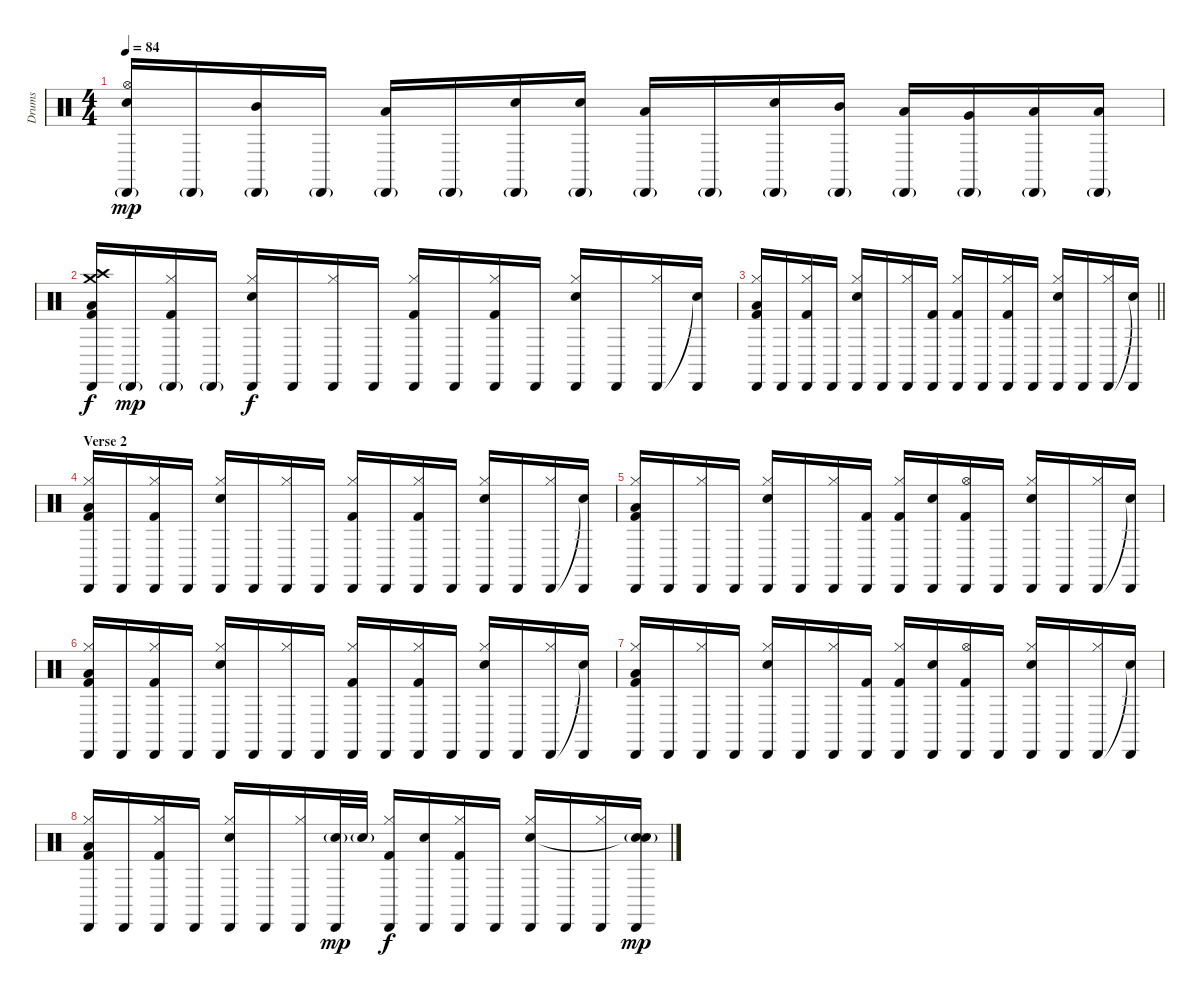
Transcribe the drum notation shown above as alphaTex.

\track ("Drums" "Drums") {instrument percussion}
\staff {score}
\articulation defaults
\ts (4 4)
\tempo 84
\clef neutral
\ks c
("Hi-Hat (open)" "Cabasa (hit)"{g} "Electric Snare (hit)").16{dy mp} "Cabasa (hit)"{g}.16 ("Cabasa (hit)"{g} "Mid Tom (hit)").16 "Cabasa (hit)"{g}.16 ("Cabasa (hit)"{g} "Low Tom (hit)").16 "Cabasa (hit)"{g}.16 ("Cabasa (hit)"{g} "Electric Snare (hit)").16 ("Cabasa (hit)"{g} "Electric Snare (hit)").16 ("Cabasa (hit)"{g} "Low Tom (hit)").16 "Cabasa (hit)"{g}.16 ("Cabasa (hit)"{g} "Electric Snare (hit)").16 ("Cabasa (hit)"{g} "Mid Tom (hit)").16 ("Cabasa (hit)"{g} "Low Tom (hit)").16 ("Cabasa (hit)"{g} "Very Low Tom (hit)").16 ("Cabasa (hit)"{g} "Low Floor Tom (hit)").16 ("Cabasa (hit)"{g} "Low Floor Tom (hit)").16 |
("Crash high (hit)" "Crash medium (hit)" "Cabasa (hit)" "Low Floor Tom (hit)" "Kick (hit) 2").16{dy f volume 10} "Cabasa (hit)"{g}.16{dy mp} ("Hi-Hat (closed)" "Cabasa (hit)"{g} "Kick (hit) 2").16 "Cabasa (hit)"{g}.16 ("Hi-Hat (closed)" "Cabasa (hit)" "Electric Snare (hit)").16{dy f} "Cabasa (hit)".16 ("Hi-Hat (closed)" "Cabasa (hit)").16 "Cabasa (hit)".16 ("Hi-Hat (closed)" "Cabasa (hit)" "Kick (hit) 2").16 "Cabasa (hit)".16 ("Hi-Hat (closed)" "Cabasa (hit)" "Kick (hit) 2").16 "Cabasa (hit)".16 ("Hi-Hat (closed)" "Cabasa (hit)" "Electric Snare (hit)").16 "Cabasa (hit)".16 ("Hi-Hat (closed)" "Cabasa (hit)").16 ("Cabasa (hit)" "Snare (hit)"{t}).16 |
\barLineRight lightlight
("Hi-Hat (closed)" "Cabasa (hit)" "Low Floor Tom (hit)" "Kick (hit) 2").16 "Cabasa (hit)".16 ("Hi-Hat (closed)" "Cabasa (hit)" "Kick (hit) 2").16 "Cabasa (hit)".16 ("Hi-Hat (closed)" "Cabasa (hit)" "Electric Snare (hit)").16 "Cabasa (hit)".16 ("Hi-Hat (closed)" "Cabasa (hit)").16 ("Cabasa (hit)" "Kick (hit) 2").16 ("Hi-Hat (closed)" "Cabasa (hit)" "Kick (hit) 2").16 "Cabasa (hit)".16 ("Hi-Hat (closed)" "Cabasa (hit)" "Kick (hit) 2").16 "Cabasa (hit)".16 ("Hi-Hat (closed)" "Cabasa (hit)" "Electric Snare (hit)").16 "Cabasa (hit)".16 ("Hi-Hat (closed)" "Cabasa (hit)").16 ("Cabasa (hit)" "Snare (hit)"{t}).16 |
\section ("" "Verse 2")
("Hi-Hat (closed)" "Cabasa (hit)" "Low Floor Tom (hit)" "Kick (hit) 2").16 "Cabasa (hit)".16 ("Hi-Hat (closed)" "Cabasa (hit)" "Kick (hit) 2").16 "Cabasa (hit)".16 ("Hi-Hat (closed)" "Cabasa (hit)" "Electric Snare (hit)").16 "Cabasa (hit)".16 ("Hi-Hat (closed)" "Cabasa (hit)").16 "Cabasa (hit)".16 ("Hi-Hat (closed)" "Cabasa (hit)" "Kick (hit) 2").16 "Cabasa (hit)".16 ("Hi-Hat (closed)" "Cabasa (hit)" "Kick (hit) 2").16 "Cabasa (hit)".16 ("Hi-Hat (closed)" "Cabasa (hit)" "Electric Snare (hit)").16 "Cabasa (hit)".16 ("Hi-Hat (closed)" "Cabasa (hit)").16 ("Cabasa (hit)" "Snare (hit)"{t}).16 |
("Hi-Hat (closed)" "Cabasa (hit)" "Low Floor Tom (hit)" "Kick (hit) 2").16 "Cabasa (hit)".16 ("Hi-Hat (closed)" "Cabasa (hit)").16 "Cabasa (hit)".16 ("Hi-Hat (closed)" "Cabasa (hit)" "Electric Snare (hit)").16 "Cabasa (hit)".16 ("Hi-Hat (closed)" "Cabasa (hit)").16 ("Cabasa (hit)" "Kick (hit) 2").16 ("Hi-Hat (closed)" "Cabasa (hit)" "Kick (hit) 2").16 ("Cabasa (hit)" "Electric Snare (hit)").16 ("Hi-Hat (open)" "Cabasa (hit)" "Kick (hit) 2").16 "Cabasa (hit)".16 ("Hi-Hat (closed)" "Cabasa (hit)" "Electric Snare (hit)").16 "Cabasa (hit)".16 ("Hi-Hat (closed)" "Cabasa (hit)").16 ("Cabasa (hit)" "Snare (hit)"{t}).16 |
("Hi-Hat (closed)" "Cabasa (hit)" "Low Floor Tom (hit)" "Kick (hit) 2").16 "Cabasa (hit)".16 ("Hi-Hat (closed)" "Cabasa (hit)" "Kick (hit) 2").16 "Cabasa (hit)".16 ("Hi-Hat (closed)" "Cabasa (hit)" "Electric Snare (hit)").16 "Cabasa (hit)".16 ("Hi-Hat (closed)" "Cabasa (hit)").16 "Cabasa (hit)".16 ("Hi-Hat (closed)" "Cabasa (hit)" "Kick (hit) 2").16 "Cabasa (hit)".16 ("Hi-Hat (closed)" "Cabasa (hit)" "Kick (hit) 2").16 "Cabasa (hit)".16 ("Hi-Hat (closed)" "Cabasa (hit)" "Electric Snare (hit)").16 "Cabasa (hit)".16 ("Hi-Hat (closed)" "Cabasa (hit)").16 ("Cabasa (hit)" "Snare (hit)"{t}).16 |
("Hi-Hat (closed)" "Cabasa (hit)" "Low Floor Tom (hit)" "Kick (hit) 2").16 "Cabasa (hit)".16 ("Hi-Hat (closed)" "Cabasa (hit)").16 "Cabasa (hit)".16 ("Hi-Hat (closed)" "Cabasa (hit)" "Electric Snare (hit)").16 "Cabasa (hit)".16 ("Hi-Hat (closed)" "Cabasa (hit)").16 ("Cabasa (hit)" "Kick (hit) 2").16 ("Hi-Hat (closed)" "Cabasa (hit)" "Kick (hit) 2").16 ("Cabasa (hit)" "Electric Snare (hit)").16 ("Hi-Hat (open)" "Cabasa (hit)" "Kick (hit) 2").16 "Cabasa (hit)".16 ("Hi-Hat (closed)" "Cabasa (hit)" "Electric Snare (hit)").16 "Cabasa (hit)".16 ("Hi-Hat (closed)" "Cabasa (hit)").16 ("Cabasa (hit)" "Snare (hit)"{t}).16 |
("Hi-Hat (closed)" "Cabasa (hit)" "Low Floor Tom (hit)" "Kick (hit) 2").16 "Cabasa (hit)".16 ("Hi-Hat (closed)" "Cabasa (hit)" "Kick (hit) 2").16 "Cabasa (hit)".16 ("Hi-Hat (closed)" "Cabasa (hit)" "Electric Snare (hit)").16 "Cabasa (hit)".16 ("Hi-Hat (closed)" "Cabasa (hit)").16 ("Cabasa (hit)" "Electric Snare (hit)"{g}).32{dy mp} "Electric Snare (hit)"{g}.32 ("Hi-Hat (closed)" "Cabasa (hit)" "Kick (hit) 2").16{dy f} ("Cabasa (hit)" "Electric Snare (hit)").16 ("Hi-Hat (closed)" "Cabasa (hit)" "Kick (hit) 2").16 "Cabasa (hit)".16 ("Hi-Hat (closed)" "Cabasa (hit)" "Electric Snare (hit)").16 "Cabasa (hit)".16 ("Hi-Hat (closed)" "Cabasa (hit)").16 ("Cabasa (hit)" "Electric Snare (hit)"{g} "Snare (hit)"{t}).16{dy mp}
